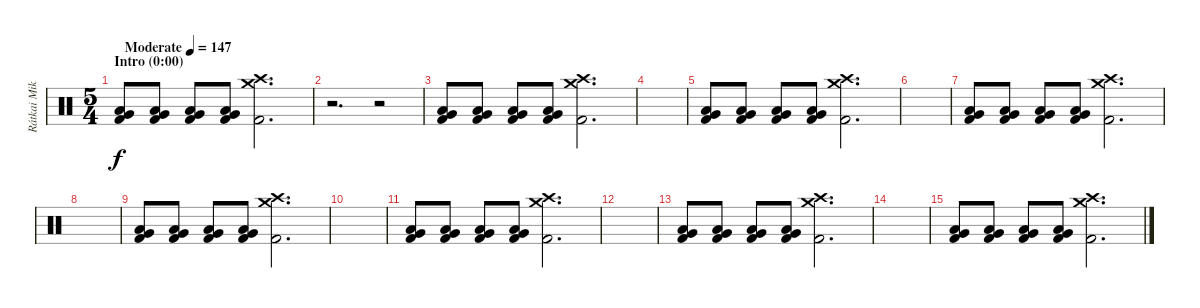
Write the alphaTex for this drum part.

\track ("Rátkai Miklós [Drums]" "Rátkai Mik") {instrument percussion}
\staff {score}
\articulation defaults
\ts (5 4)
\section ("" "Intro (0:00)")
\tempo (147 "Moderate")
\clef neutral
\ks c
("Very Low Tom (hit)" "Low Floor Tom (hit)" "Kick (hit) 2").8{dy f} ("Very Low Tom (hit)" "Low Floor Tom (hit)" "Kick (hit) 2").8 ("Very Low Tom (hit)" "Low Floor Tom (hit)" "Kick (hit) 2").8 ("Very Low Tom (hit)" "Low Floor Tom (hit)" "Kick (hit) 2").8 ("Crash high (hit)" "Crash medium (hit)" "Kick (hit) 2").2{d} |
r.2{d} r.2 |
("Very Low Tom (hit)" "Low Floor Tom (hit)" "Kick (hit) 2").8 ("Very Low Tom (hit)" "Low Floor Tom (hit)" "Kick (hit) 2").8 ("Very Low Tom (hit)" "Low Floor Tom (hit)" "Kick (hit) 2").8 ("Very Low Tom (hit)" "Low Floor Tom (hit)" "Kick (hit) 2").8 ("Crash high (hit)" "Crash medium (hit)" "Kick (hit) 2").2{d} |
|
("Very Low Tom (hit)" "Low Floor Tom (hit)" "Kick (hit) 2").8 ("Very Low Tom (hit)" "Low Floor Tom (hit)" "Kick (hit) 2").8 ("Very Low Tom (hit)" "Low Floor Tom (hit)" "Kick (hit) 2").8 ("Very Low Tom (hit)" "Low Floor Tom (hit)" "Kick (hit) 2").8 ("Crash high (hit)" "Crash medium (hit)" "Kick (hit) 2").2{d} |
|
("Very Low Tom (hit)" "Low Floor Tom (hit)" "Kick (hit) 2").8 ("Very Low Tom (hit)" "Low Floor Tom (hit)" "Kick (hit) 2").8 ("Very Low Tom (hit)" "Low Floor Tom (hit)" "Kick (hit) 2").8 ("Very Low Tom (hit)" "Low Floor Tom (hit)" "Kick (hit) 2").8 ("Crash high (hit)" "Crash medium (hit)" "Kick (hit) 2").2{d} |
|
("Very Low Tom (hit)" "Low Floor Tom (hit)" "Kick (hit) 2").8 ("Very Low Tom (hit)" "Low Floor Tom (hit)" "Kick (hit) 2").8 ("Very Low Tom (hit)" "Low Floor Tom (hit)" "Kick (hit) 2").8 ("Very Low Tom (hit)" "Low Floor Tom (hit)" "Kick (hit) 2").8 ("Crash high (hit)" "Crash medium (hit)" "Kick (hit) 2").2{d} |
|
("Very Low Tom (hit)" "Low Floor Tom (hit)" "Kick (hit) 2").8 ("Very Low Tom (hit)" "Low Floor Tom (hit)" "Kick (hit) 2").8 ("Very Low Tom (hit)" "Low Floor Tom (hit)" "Kick (hit) 2").8 ("Very Low Tom (hit)" "Low Floor Tom (hit)" "Kick (hit) 2").8 ("Crash high (hit)" "Crash medium (hit)" "Kick (hit) 2").2{d} |
|
("Very Low Tom (hit)" "Low Floor Tom (hit)" "Kick (hit) 2").8 ("Very Low Tom (hit)" "Low Floor Tom (hit)" "Kick (hit) 2").8 ("Very Low Tom (hit)" "Low Floor Tom (hit)" "Kick (hit) 2").8 ("Very Low Tom (hit)" "Low Floor Tom (hit)" "Kick (hit) 2").8 ("Crash high (hit)" "Crash medium (hit)" "Kick (hit) 2").2{d} |
|
("Very Low Tom (hit)" "Low Floor Tom (hit)" "Kick (hit) 2").8 ("Very Low Tom (hit)" "Low Floor Tom (hit)" "Kick (hit) 2").8 ("Very Low Tom (hit)" "Low Floor Tom (hit)" "Kick (hit) 2").8 ("Very Low Tom (hit)" "Low Floor Tom (hit)" "Kick (hit) 2").8 ("Crash high (hit)" "Crash medium (hit)" "Kick (hit) 2").2{d}
